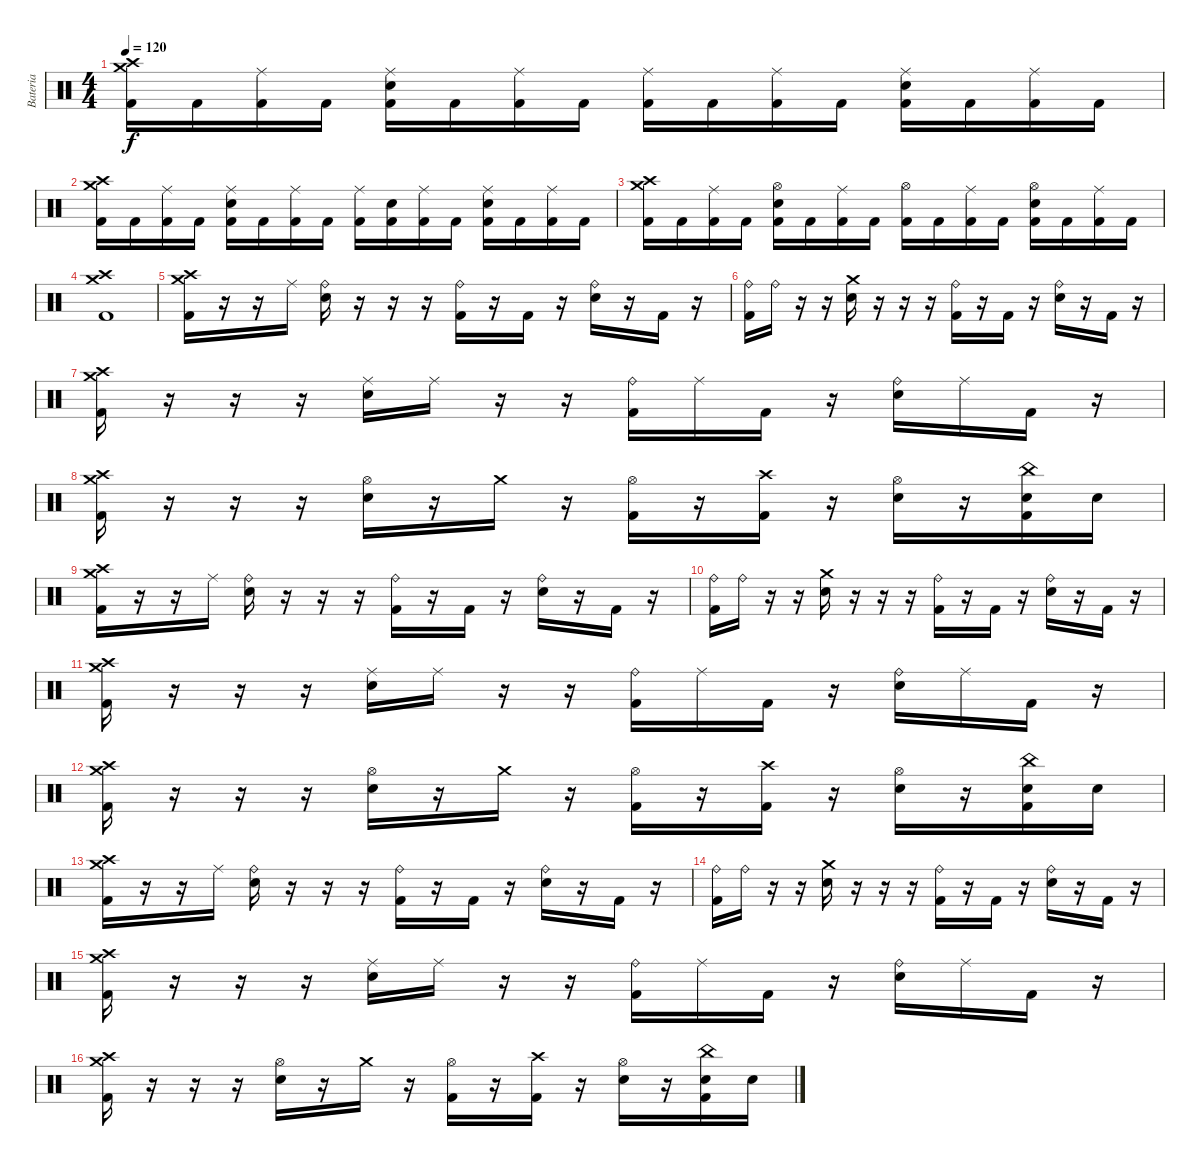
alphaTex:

\track ("Bateria" "Bateria") {instrument percussion}
\staff {score}
\articulation defaults
\ts (4 4)
\tempo 120
\clef neutral
\ks c
("Crash medium (hit)" "Crash high (hit)" "Kick (hit) 2").16{dy f} "Kick (hit) 2".16 ("Ride (middle)" "Kick (hit) 2").16 "Kick (hit) 2".16 ("Ride (middle)" "Electric Snare (hit)" "Kick (hit) 2").16 "Kick (hit) 2".16 ("Ride (middle)" "Kick (hit) 2").16 "Kick (hit) 2".16 ("Ride (middle)" "Kick (hit) 2").16 "Kick (hit) 2".16 ("Ride (middle)" "Kick (hit) 2").16 "Kick (hit) 2".16 ("Ride (middle)" "Electric Snare (hit)" "Kick (hit) 2").16 "Kick (hit) 2".16 ("Ride (middle)" "Kick (hit) 2").16 "Kick (hit) 2".16 |
("Crash medium (hit)" "Crash high (hit)" "Kick (hit) 2").16 "Kick (hit) 2".16 ("Ride (middle)" "Kick (hit) 2").16 "Kick (hit) 2".16 ("Ride (middle)" "Electric Snare (hit)" "Kick (hit) 2").16 "Kick (hit) 2".16 ("Ride (middle)" "Kick (hit) 2").16 "Kick (hit) 2".16 ("Ride (middle)" "Kick (hit) 2").16 ("Electric Snare (hit)" "Kick (hit) 2").16 ("Ride (middle)" "Kick (hit) 2").16 "Kick (hit) 2".16 ("Ride (middle)" "Electric Snare (hit)" "Kick (hit) 2").16 "Kick (hit) 2".16 ("Ride (middle)" "Kick (hit) 2").16 "Kick (hit) 2".16 |
("Crash medium (hit)" "Crash high (hit)" "Kick (hit) 2").16 "Kick (hit) 2".16 ("Ride (middle)" "Kick (hit) 2").16 "Kick (hit) 2".16 ("Hi-Hat (open)" "Electric Snare (hit)" "Kick (hit) 2").16 "Kick (hit) 2".16 ("Ride (middle)" "Kick (hit) 2").16 "Kick (hit) 2".16 ("Hi-Hat (open)" "Kick (hit) 2").16 "Kick (hit) 2".16 ("Ride (middle)" "Kick (hit) 2").16 "Kick (hit) 2".16 ("Hi-Hat (open)" "Electric Snare (hit)" "Kick (hit) 2").16 "Kick (hit) 2".16 ("Ride (middle)" "Kick (hit) 2").16 "Kick (hit) 2".16 |
("Crash medium (hit)" "Crash high (hit)" "Kick (hit) 2").1 |
("Crash medium (hit)" "Crash high (hit)" "Kick (hit) 2").16 r.16 r.16 "Ride (middle)".16 ("Ride (bell)" "Electric Snare (hit)").16 r.16 r.16 r.16 ("Ride (bell)" "Kick (hit) 2").16 r.16 "Kick (hit) 2".16 r.16 ("Ride (bell)" "Electric Snare (hit)").16 r.16 "Kick (hit) 2".16 r.16 |
("Ride (bell)" "Kick (hit) 2").16 "Ride (bell)".16 r.16 r.16 ("Crash medium (hit)" "Electric Snare (hit)").16 r.16 r.16 r.16 ("Ride (bell)" "Kick (hit) 2").16 r.16 "Kick (hit) 2".16 r.16 ("Ride (bell)" "Electric Snare (hit)").16 r.16 "Kick (hit) 2".16 r.16 |
("Crash medium (hit)" "Crash high (hit)" "Kick (hit) 2").16 r.16 r.16 r.16 ("Ride (middle)" "Electric Snare (hit)").16 "Ride (middle)".16 r.16 r.16 ("Ride (bell)" "Kick (hit) 2").16 "Ride (middle)".16 "Kick (hit) 2".16 r.16 ("Ride (bell)" "Electric Snare (hit)").16 "Ride (middle)".16 "Kick (hit) 2".16 r.16 |
("Crash medium (hit)" "Crash high (hit)" "Kick (hit) 2").16 r.16 r.16 r.16 ("Hi-Hat (open)" "Electric Snare (hit)").16 r.16 "Crash medium (hit)".16 r.16 ("Hi-Hat (open)" "Kick (hit) 2").16 r.16 ("Crash high (hit)" "Kick (hit) 2").16 r.16 ("Hi-Hat (open)" "Electric Snare (hit)").16 r.16 ("China (hit)" "Electric Snare (hit)" "Kick (hit) 2").16 "Electric Snare (hit)".16 |
("Crash medium (hit)" "Crash high (hit)" "Kick (hit) 2").16 r.16 r.16 "Ride (middle)".16 ("Ride (bell)" "Electric Snare (hit)").16 r.16 r.16 r.16 ("Ride (bell)" "Kick (hit) 2").16 r.16 "Kick (hit) 2".16 r.16 ("Ride (bell)" "Electric Snare (hit)").16 r.16 "Kick (hit) 2".16 r.16 |
("Ride (bell)" "Kick (hit) 2").16 "Ride (bell)".16 r.16 r.16 ("Crash medium (hit)" "Electric Snare (hit)").16 r.16 r.16 r.16 ("Ride (bell)" "Kick (hit) 2").16 r.16 "Kick (hit) 2".16 r.16 ("Ride (bell)" "Electric Snare (hit)").16 r.16 "Kick (hit) 2".16 r.16 |
("Crash medium (hit)" "Crash high (hit)" "Kick (hit) 2").16 r.16 r.16 r.16 ("Ride (middle)" "Electric Snare (hit)").16 "Ride (middle)".16 r.16 r.16 ("Ride (bell)" "Kick (hit) 2").16 "Ride (middle)".16 "Kick (hit) 2".16 r.16 ("Ride (bell)" "Electric Snare (hit)").16 "Ride (middle)".16 "Kick (hit) 2".16 r.16 |
("Crash medium (hit)" "Crash high (hit)" "Kick (hit) 2").16 r.16 r.16 r.16 ("Hi-Hat (open)" "Electric Snare (hit)").16 r.16 "Crash medium (hit)".16 r.16 ("Hi-Hat (open)" "Kick (hit) 2").16 r.16 ("Crash high (hit)" "Kick (hit) 2").16 r.16 ("Hi-Hat (open)" "Electric Snare (hit)").16 r.16 ("China (hit)" "Electric Snare (hit)" "Kick (hit) 2").16 "Electric Snare (hit)".16 |
("Crash medium (hit)" "Crash high (hit)" "Kick (hit) 2").16 r.16 r.16 "Ride (middle)".16 ("Ride (bell)" "Electric Snare (hit)").16 r.16 r.16 r.16 ("Ride (bell)" "Kick (hit) 2").16 r.16 "Kick (hit) 2".16 r.16 ("Ride (bell)" "Electric Snare (hit)").16 r.16 "Kick (hit) 2".16 r.16 |
("Ride (bell)" "Kick (hit) 2").16 "Ride (bell)".16 r.16 r.16 ("Crash medium (hit)" "Electric Snare (hit)").16 r.16 r.16 r.16 ("Ride (bell)" "Kick (hit) 2").16 r.16 "Kick (hit) 2".16 r.16 ("Ride (bell)" "Electric Snare (hit)").16 r.16 "Kick (hit) 2".16 r.16 |
("Crash medium (hit)" "Crash high (hit)" "Kick (hit) 2").16 r.16 r.16 r.16 ("Ride (middle)" "Electric Snare (hit)").16 "Ride (middle)".16 r.16 r.16 ("Ride (bell)" "Kick (hit) 2").16 "Ride (middle)".16 "Kick (hit) 2".16 r.16 ("Ride (bell)" "Electric Snare (hit)").16 "Ride (middle)".16 "Kick (hit) 2".16 r.16 |
("Crash medium (hit)" "Crash high (hit)" "Kick (hit) 2").16 r.16 r.16 r.16 ("Hi-Hat (open)" "Electric Snare (hit)").16 r.16 "Crash medium (hit)".16 r.16 ("Hi-Hat (open)" "Kick (hit) 2").16 r.16 ("Crash high (hit)" "Kick (hit) 2").16 r.16 ("Hi-Hat (open)" "Electric Snare (hit)").16 r.16 ("China (hit)" "Electric Snare (hit)" "Kick (hit) 2").16 "Electric Snare (hit)".16
